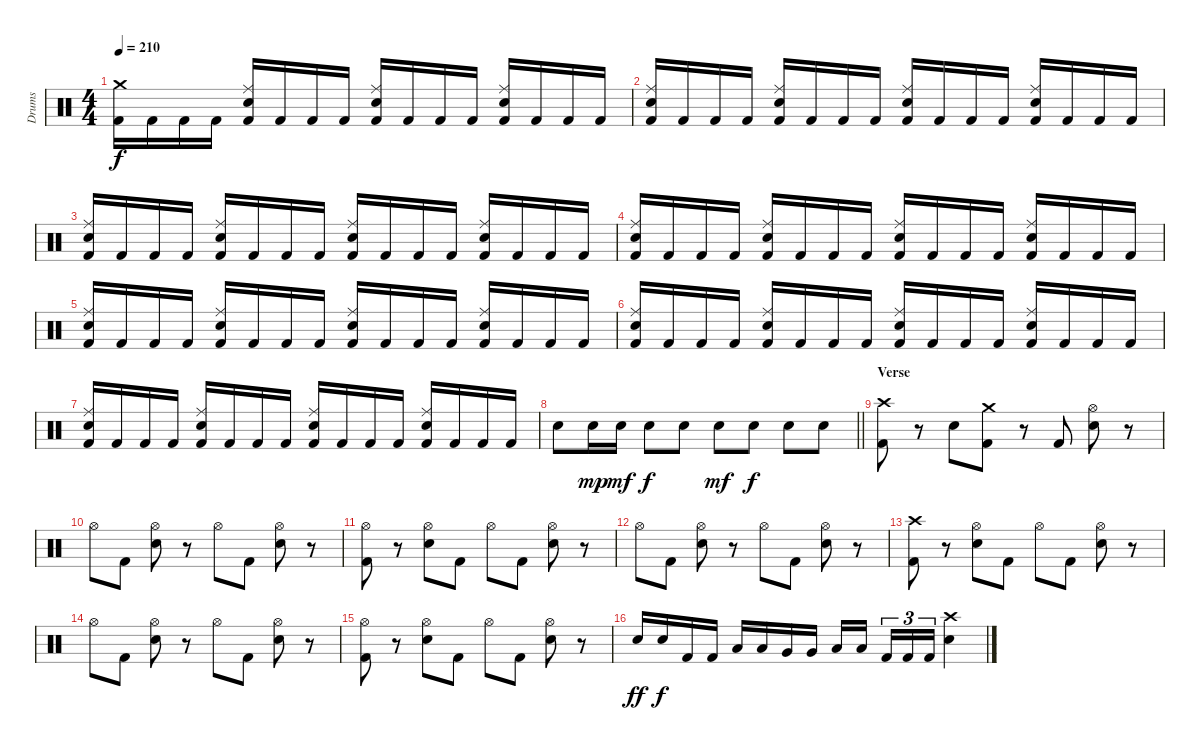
\track ("Drums" "Drums") {instrument percussion}
\staff {score}
\articulation defaults
\ts (4 4)
\tempo 210
\clef neutral
\ks c
("Crash medium (hit)" "Kick (hit) 2").16{dy f} "Kick (hit) 2".16 "Kick (hit) 2".16 "Kick (hit) 2".16 ("Ride (middle)" "Electric Snare (hit)" "Kick (hit) 2").16 "Kick (hit) 2".16 "Kick (hit) 2".16 "Kick (hit) 2".16 ("Ride (middle)" "Electric Snare (hit)" "Kick (hit) 2").16 "Kick (hit) 2".16 "Kick (hit) 2".16 "Kick (hit) 2".16 ("Ride (middle)" "Electric Snare (hit)" "Kick (hit) 2").16 "Kick (hit) 2".16 "Kick (hit) 2".16 "Kick (hit) 2".16 |
("Ride (middle)" "Electric Snare (hit)" "Kick (hit) 2").16 "Kick (hit) 2".16 "Kick (hit) 2".16 "Kick (hit) 2".16 ("Ride (middle)" "Electric Snare (hit)" "Kick (hit) 2").16 "Kick (hit) 2".16 "Kick (hit) 2".16 "Kick (hit) 2".16 ("Ride (middle)" "Electric Snare (hit)" "Kick (hit) 2").16 "Kick (hit) 2".16 "Kick (hit) 2".16 "Kick (hit) 2".16 ("Ride (middle)" "Electric Snare (hit)" "Kick (hit) 2").16 "Kick (hit) 2".16 "Kick (hit) 2".16 "Kick (hit) 2".16 |
("Ride (middle)" "Electric Snare (hit)" "Kick (hit) 2").16 "Kick (hit) 2".16 "Kick (hit) 2".16 "Kick (hit) 2".16 ("Ride (middle)" "Electric Snare (hit)" "Kick (hit) 2").16 "Kick (hit) 2".16 "Kick (hit) 2".16 "Kick (hit) 2".16 ("Ride (middle)" "Electric Snare (hit)" "Kick (hit) 2").16 "Kick (hit) 2".16 "Kick (hit) 2".16 "Kick (hit) 2".16 ("Ride (middle)" "Electric Snare (hit)" "Kick (hit) 2").16 "Kick (hit) 2".16 "Kick (hit) 2".16 "Kick (hit) 2".16 |
("Ride (middle)" "Electric Snare (hit)" "Kick (hit) 2").16 "Kick (hit) 2".16 "Kick (hit) 2".16 "Kick (hit) 2".16 ("Ride (middle)" "Electric Snare (hit)" "Kick (hit) 2").16 "Kick (hit) 2".16 "Kick (hit) 2".16 "Kick (hit) 2".16 ("Ride (middle)" "Electric Snare (hit)" "Kick (hit) 2").16 "Kick (hit) 2".16 "Kick (hit) 2".16 "Kick (hit) 2".16 ("Ride (middle)" "Electric Snare (hit)" "Kick (hit) 2").16 "Kick (hit) 2".16 "Kick (hit) 2".16 "Kick (hit) 2".16 |
("Ride (middle)" "Electric Snare (hit)" "Kick (hit) 2").16 "Kick (hit) 2".16 "Kick (hit) 2".16 "Kick (hit) 2".16 ("Ride (middle)" "Electric Snare (hit)" "Kick (hit) 2").16 "Kick (hit) 2".16 "Kick (hit) 2".16 "Kick (hit) 2".16 ("Ride (middle)" "Electric Snare (hit)" "Kick (hit) 2").16 "Kick (hit) 2".16 "Kick (hit) 2".16 "Kick (hit) 2".16 ("Ride (middle)" "Electric Snare (hit)" "Kick (hit) 2").16 "Kick (hit) 2".16 "Kick (hit) 2".16 "Kick (hit) 2".16 |
("Ride (middle)" "Electric Snare (hit)" "Kick (hit) 2").16 "Kick (hit) 2".16 "Kick (hit) 2".16 "Kick (hit) 2".16 ("Ride (middle)" "Electric Snare (hit)" "Kick (hit) 2").16 "Kick (hit) 2".16 "Kick (hit) 2".16 "Kick (hit) 2".16 ("Ride (middle)" "Electric Snare (hit)" "Kick (hit) 2").16 "Kick (hit) 2".16 "Kick (hit) 2".16 "Kick (hit) 2".16 ("Ride (middle)" "Electric Snare (hit)" "Kick (hit) 2").16 "Kick (hit) 2".16 "Kick (hit) 2".16 "Kick (hit) 2".16 |
("Ride (middle)" "Electric Snare (hit)" "Kick (hit) 2").16 "Kick (hit) 2".16 "Kick (hit) 2".16 "Kick (hit) 2".16 ("Ride (middle)" "Electric Snare (hit)" "Kick (hit) 2").16 "Kick (hit) 2".16 "Kick (hit) 2".16 "Kick (hit) 2".16 ("Ride (middle)" "Electric Snare (hit)" "Kick (hit) 2").16 "Kick (hit) 2".16 "Kick (hit) 2".16 "Kick (hit) 2".16 ("Ride (middle)" "Electric Snare (hit)" "Kick (hit) 2").16 "Kick (hit) 2".16 "Kick (hit) 2".16 "Kick (hit) 2".16 |
\barLineRight lightlight "Electric Snare (hit)".8 "Electric Snare (hit)".16{dy mp} "Electric Snare (hit)".16{dy mf} "Electric Snare (hit)".8{dy f} "Electric Snare (hit)".8 "Electric Snare (hit)".8{dy mf} "Electric Snare (hit)".8{dy f} "Electric Snare (hit)".8 "Electric Snare (hit)".8
|
\section ("" "Verse")
("Crash high (hit)" "Kick (hit) 2").8 r.8 "Electric Snare (hit)".8 ("Crash medium (hit)" "Kick (hit) 2").8 r.8 "Kick (hit) 2".8 ("Hi-Hat (open)" "Electric Snare (hit)").8 r.8 |
"Hi-Hat (open)".8 "Kick (hit) 2".8 ("Hi-Hat (open)" "Electric Snare (hit)").8 r.8 "Hi-Hat (open)".8 "Kick (hit) 2".8 ("Hi-Hat (open)" "Electric Snare (hit)").8 r.8 |
("Hi-Hat (open)" "Kick (hit) 2").8 r.8 ("Hi-Hat (open)" "Electric Snare (hit)").8 "Kick (hit) 2".8 "Hi-Hat (open)".8 "Kick (hit) 2".8 ("Hi-Hat (open)" "Electric Snare (hit)").8 r.8 |
"Hi-Hat (open)".8 "Kick (hit) 2".8 ("Hi-Hat (open)" "Electric Snare (hit)").8 r.8 "Hi-Hat (open)".8 "Kick (hit) 2".8 ("Hi-Hat (open)" "Electric Snare (hit)").8 r.8 |
("Crash high (hit)" "Kick (hit) 2").8 r.8 ("Hi-Hat (open)" "Electric Snare (hit)").8 "Kick (hit) 2".8 "Hi-Hat (open)".8 "Kick (hit) 2".8 ("Hi-Hat (open)" "Electric Snare (hit)").8 r.8 |
"Hi-Hat (open)".8 "Kick (hit) 2".8 ("Hi-Hat (open)" "Electric Snare (hit)").8 r.8 "Hi-Hat (open)".8 "Kick (hit) 2".8 ("Hi-Hat (open)" "Electric Snare (hit)").8 r.8 |
("Hi-Hat (open)" "Kick (hit) 2").8 r.8 ("Hi-Hat (open)" "Electric Snare (hit)").8 "Kick (hit) 2".8 "Hi-Hat (open)".8 "Kick (hit) 2".8 ("Hi-Hat (open)" "Electric Snare (hit)").8 r.8 |
"Electric Snare (hit)".16{dy ff} "Electric Snare (hit)".16{dy f} "Kick (hit) 2".16 "Kick (hit) 2".16 "Low Tom (hit)".16 "Low Tom (hit)".16 "Very Low Tom (hit)".16 "Very Low Tom (hit)".16 "Low Floor Tom (hit)".16 "Low Floor Tom (hit)".16{beam splitsecondary} "Kick (hit) 2".16{tu (3 2)} "Kick (hit) 2".16{tu (3 2)} "Kick (hit) 2".16{tu (3 2)} ("Crash high (hit)" "Electric Snare (hit)").4
